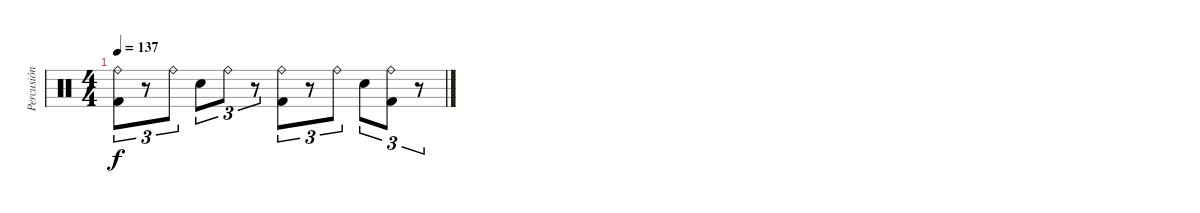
\track ("Percusión" "Percusión") {instrument percussion}
\staff {score}
\articulation defaults
\ts (4 4)
\tempo 137
\clef neutral
\ks c
("Kick (hit) 2" "Ride (bell)").8{tu (3 2) dy f volume 0} r.8{tu (3 2)} "Ride (bell)".8{tu (3 2)} "Electric Snare (hit)".8{tu (3 2)} "Ride (bell)".8{tu (3 2)} r.8{tu (3 2)} ("Kick (hit) 2" "Ride (bell)").8{tu (3 2)} r.8{tu (3 2)} "Ride (bell)".8{tu (3 2)} "Electric Snare (hit)".8{tu (3 2)} ("Kick (hit) 2" "Ride (bell)").8{tu (3 2)} r.8{tu (3 2)}
